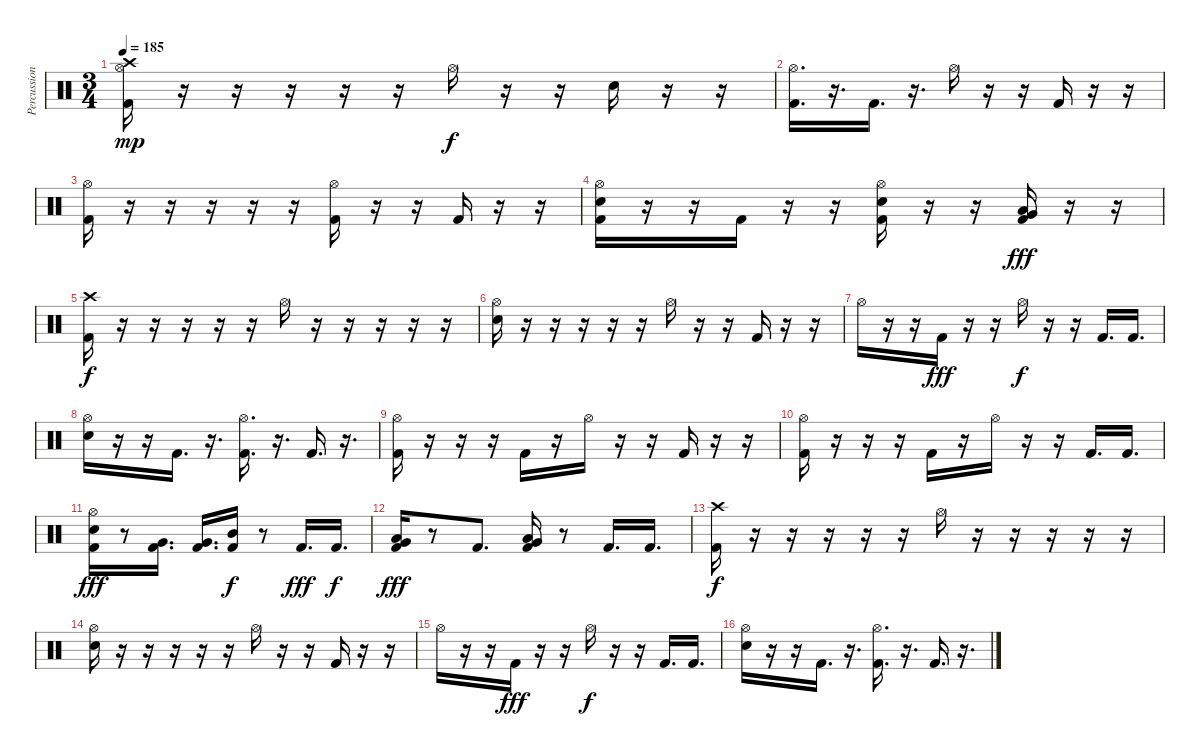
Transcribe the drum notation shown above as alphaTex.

\track ("Percussion" "Percussion") {instrument percussion}
\staff {score}
\articulation defaults
\ts (3 4)
\tempo 185
\clef neutral
\ks c
("Crash high (hit)" "Hi-Hat (open)" "Kick (hit) 2").16{dy mp} r.16 r.16 r.16 r.16 r.16 "Hi-Hat (open)".16{dy f} r.16 r.16 "Electric Snare (hit)".16 r.16 r.16 |
("Hi-Hat (open)" "Kick (hit) 2").16{d} r.16{d} "Kick (hit) 2".16{d} r.16{d} "Hi-Hat (open)".16 r.16 r.16 "Kick (hit) 2".16 r.16 r.16 |
("Hi-Hat (open)" "Kick (hit) 2").16 r.16 r.16 r.16 r.16 r.16 ("Hi-Hat (open)" "Kick (hit) 2").16 r.16 r.16 "Kick (hit) 2".16 r.16 r.16 |
("Hi-Hat (open)" "Electric Snare (hit)" "Kick (hit) 2").16 r.16 r.16 "Kick (hit) 2".16 r.16 r.16 ("Hi-Hat (open)" "Electric Snare (hit)" "Kick (hit) 2").16 r.16 r.16 ("Low Floor Tom (hit)" "Very Low Tom (hit)" "Kick (hit) 2").16{dy fff} r.16 r.16 |
("Crash high (hit)" "Kick (hit) 2").16{dy f} r.16 r.16 r.16 r.16 r.16 "Hi-Hat (open)".16 r.16 r.16 r.16 r.16 r.16 |
("Hi-Hat (open)" "Electric Snare (hit)").16 r.16 r.16 r.16 r.16 r.16 "Hi-Hat (open)".16 r.16 r.16 "Kick (hit) 2".16 r.16 r.16 |
"Hi-Hat (open)".16 r.16 r.16 "Kick (hit) 2".16{dy fff} r.16 r.16 "Hi-Hat (open)".16{dy f} r.16 r.16 "Kick (hit) 2".16{d} "Kick (hit) 2".16{d} |
("Hi-Hat (open)" "Electric Snare (hit)").16 r.16 r.16 "Kick (hit) 2".16{d} r.16{d} ("Hi-Hat (open)" "Kick (hit) 2").16{d} r.16{d} "Kick (hit) 2".16{d} r.16{d} |
("Hi-Hat (open)" "Kick (hit) 2").16 r.16 r.16 r.16 "Kick (hit) 2".16 r.16 "Hi-Hat (open)".16 r.16 r.16 "Kick (hit) 2".16 r.16 r.16 |
("Hi-Hat (open)" "Kick (hit) 2").16 r.16 r.16 r.16 "Kick (hit) 2".16 r.16 "Hi-Hat (open)".16 r.16 r.16 "Kick (hit) 2".16{d} "Kick (hit) 2".16{d} |
("Hi-Hat (open)" "Electric Snare (hit)" "Kick (hit) 2").16{dy fff} r.8 ("Very Low Tom (hit)" "Kick (hit) 2").16{d} ("Very Low Tom (hit)" "Kick (hit) 2").16{d} ("Mid Tom (hit)" "Kick (hit) 2").16{dy f} r.8 "Kick (hit) 2".16{d dy fff} "Kick (hit) 2".16{d dy f} |
("Very Low Tom (hit)" "Low Tom (hit)" "Kick (hit) 2").16{dy fff} r.8 "Kick (hit) 2".8{d} ("Low Floor Tom (hit)" "Very Low Tom (hit)" "Kick (hit) 2").16 r.8 "Kick (hit) 2".16{d} "Kick (hit) 2".16{d} |
("Crash high (hit)" "Kick (hit) 2").16{dy f} r.16 r.16 r.16 r.16 r.16 "Hi-Hat (open)".16 r.16 r.16 r.16 r.16 r.16 |
("Hi-Hat (open)" "Electric Snare (hit)").16 r.16 r.16 r.16 r.16 r.16 "Hi-Hat (open)".16 r.16 r.16 "Kick (hit) 2".16 r.16 r.16 |
"Hi-Hat (open)".16 r.16 r.16 "Kick (hit) 2".16{dy fff} r.16 r.16 "Hi-Hat (open)".16{dy f} r.16 r.16 "Kick (hit) 2".16{d} "Kick (hit) 2".16{d} |
("Hi-Hat (open)" "Electric Snare (hit)").16 r.16 r.16 "Kick (hit) 2".16{d} r.16{d} ("Hi-Hat (open)" "Kick (hit) 2").16{d} r.16{d} "Kick (hit) 2".16{d} r.16{d}
